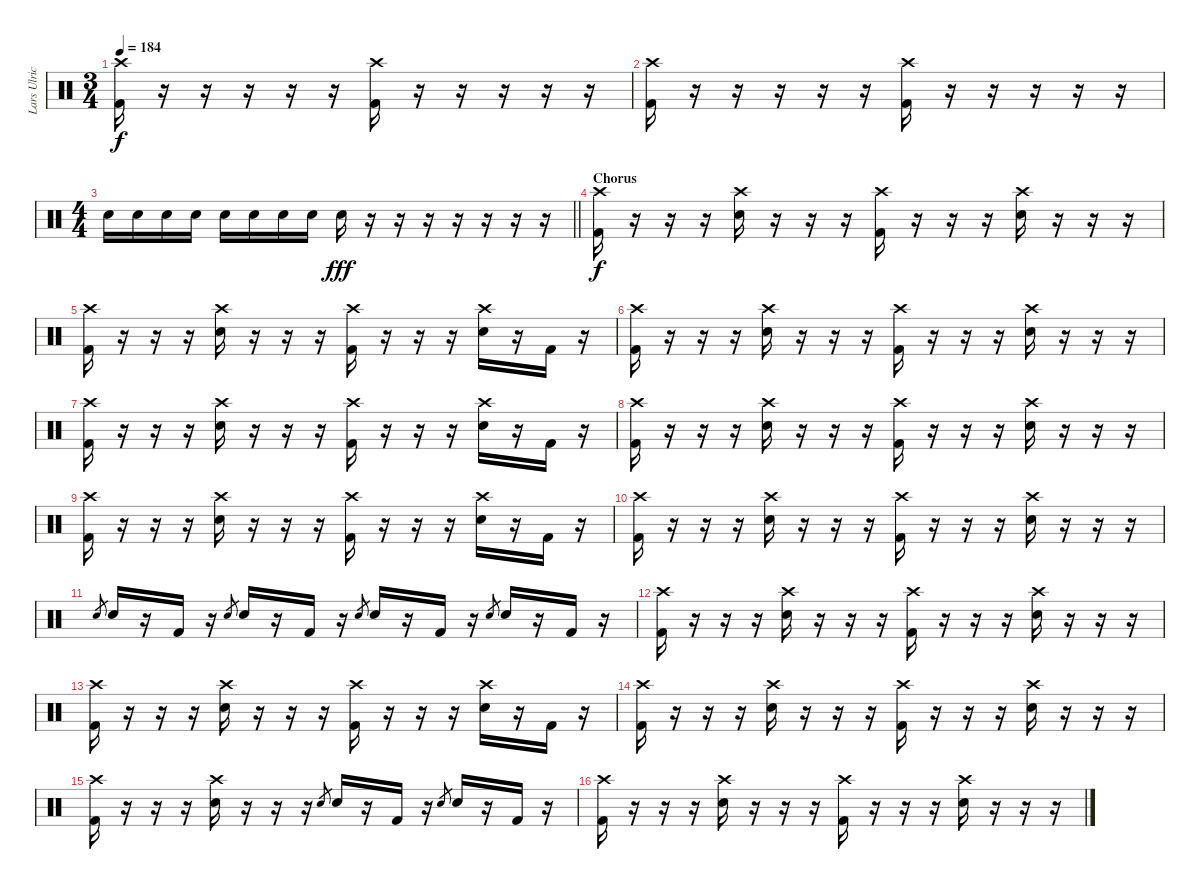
\track ("Lars Ulrich" "Lars Ulric") {instrument percussion}
\staff {score}
\articulation defaults
\ts (3 4)
\tempo 184
\clef neutral
\ks c
("Crash high (hit)" "Kick (hit) 2").16{dy f} r.16 r.16 r.16 r.16 r.16 ("Crash high (hit)" "Kick (hit) 2").16 r.16 r.16 r.16 r.16 r.16 |
("Crash high (hit)" "Kick (hit) 2").16 r.16 r.16 r.16 r.16 r.16 ("Crash high (hit)" "Kick (hit) 2").16 r.16 r.16 r.16 r.16 r.16 |
\ts (4 4)
\barLineRight lightlight "Electric Snare (hit)".16 "Electric Snare (hit)".16 "Electric Snare (hit)".16 "Electric Snare (hit)".16 "Electric Snare (hit)".16 "Electric Snare (hit)".16 "Electric Snare (hit)".16 "Electric Snare (hit)".16 "Electric Snare (hit)".16{dy fff}
r.16 r.16 r.16 r.16 r.16 r.16 r.16 |
\section ("" "Chorus")
("Crash high (hit)" "Kick (hit) 2").16{dy f} r.16 r.16 r.16 ("Crash high (hit)" "Electric Snare (hit)").16 r.16 r.16 r.16 ("Crash high (hit)" "Kick (hit) 2").16 r.16 r.16 r.16 ("Crash high (hit)" "Electric Snare (hit)").16 r.16 r.16 r.16 |
("Crash high (hit)" "Kick (hit) 2").16 r.16 r.16 r.16 ("Crash high (hit)" "Electric Snare (hit)").16 r.16 r.16 r.16 ("Crash high (hit)" "Kick (hit) 2").16 r.16 r.16 r.16 ("Crash high (hit)" "Electric Snare (hit)").16 r.16 "Kick (hit) 2".16 r.16 |
("Crash high (hit)" "Kick (hit) 2").16 r.16 r.16 r.16 ("Crash high (hit)" "Electric Snare (hit)").16 r.16 r.16 r.16 ("Crash high (hit)" "Kick (hit) 2").16 r.16 r.16 r.16 ("Crash high (hit)" "Electric Snare (hit)").16 r.16 r.16 r.16 |
("Crash high (hit)" "Kick (hit) 2").16 r.16 r.16 r.16 ("Crash high (hit)" "Electric Snare (hit)").16 r.16 r.16 r.16 ("Crash high (hit)" "Kick (hit) 2").16 r.16 r.16 r.16 ("Crash high (hit)" "Electric Snare (hit)").16 r.16 "Kick (hit) 2".16 r.16 |
("Crash high (hit)" "Kick (hit) 2").16 r.16 r.16 r.16 ("Crash high (hit)" "Electric Snare (hit)").16 r.16 r.16 r.16 ("Crash high (hit)" "Kick (hit) 2").16 r.16 r.16 r.16 ("Crash high (hit)" "Electric Snare (hit)").16 r.16 r.16 r.16 |
("Crash high (hit)" "Kick (hit) 2").16 r.16 r.16 r.16 ("Crash high (hit)" "Electric Snare (hit)").16 r.16 r.16 r.16 ("Crash high (hit)" "Kick (hit) 2").16 r.16 r.16 r.16 ("Crash high (hit)" "Electric Snare (hit)").16 r.16 "Kick (hit) 2".16 r.16 |
("Crash high (hit)" "Kick (hit) 2").16 r.16 r.16 r.16 ("Crash high (hit)" "Electric Snare (hit)").16 r.16 r.16 r.16 ("Crash high (hit)" "Kick (hit) 2").16 r.16 r.16 r.16 ("Crash high (hit)" "Electric Snare (hit)").16 r.16 r.16 r.16 |
"Electric Snare (hit)".8{gr} "Electric Snare (hit)".16 r.16 "Kick (hit) 2".16 r.16 "Electric Snare (hit)".8{gr} "Electric Snare (hit)".16 r.16 "Kick (hit) 2".16 r.16 "Electric Snare (hit)".8{gr} "Electric Snare (hit)".16 r.16 "Kick (hit) 2".16 r.16 "Electric Snare (hit)".8{gr} "Electric Snare (hit)".16 r.16 "Kick (hit) 2".16 r.16 |
("Crash high (hit)" "Kick (hit) 2").16 r.16 r.16 r.16 ("Crash high (hit)" "Electric Snare (hit)").16 r.16 r.16 r.16 ("Crash high (hit)" "Kick (hit) 2").16 r.16 r.16 r.16 ("Crash high (hit)" "Electric Snare (hit)").16 r.16 r.16 r.16 |
("Crash high (hit)" "Kick (hit) 2").16 r.16 r.16 r.16 ("Crash high (hit)" "Electric Snare (hit)").16 r.16 r.16 r.16 ("Crash high (hit)" "Kick (hit) 2").16 r.16 r.16 r.16 ("Crash high (hit)" "Electric Snare (hit)").16 r.16 "Kick (hit) 2".16 r.16 |
("Crash high (hit)" "Kick (hit) 2").16 r.16 r.16 r.16 ("Crash high (hit)" "Electric Snare (hit)").16 r.16 r.16 r.16 ("Crash high (hit)" "Kick (hit) 2").16 r.16 r.16 r.16 ("Crash high (hit)" "Electric Snare (hit)").16 r.16 r.16 r.16 |
("Crash high (hit)" "Kick (hit) 2").16 r.16 r.16 r.16 ("Crash high (hit)" "Electric Snare (hit)").16 r.16 r.16 r.16 "Electric Snare (hit)".8{gr} "Electric Snare (hit)".16 r.16 "Kick (hit) 2".16 r.16 "Electric Snare (hit)".8{gr} "Electric Snare (hit)".16 r.16 "Kick (hit) 2".16 r.16 |
("Crash high (hit)" "Kick (hit) 2").16 r.16 r.16 r.16 ("Crash high (hit)" "Electric Snare (hit)").16 r.16 r.16 r.16 ("Crash high (hit)" "Kick (hit) 2").16 r.16 r.16 r.16 ("Crash high (hit)" "Electric Snare (hit)").16 r.16 r.16 r.16
